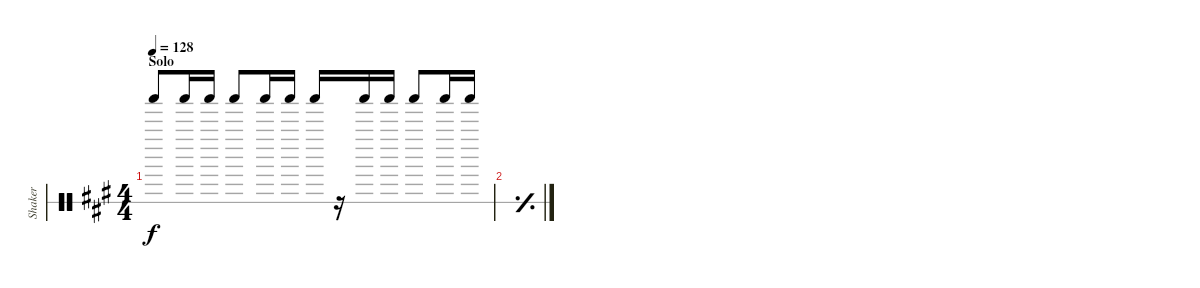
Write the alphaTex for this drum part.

\defaultSystemsLayout 4
\bracketExtendMode groupsimilarinstruments
\otherSystemsTrackNameOrientation horizontal
\track ("Shaker" "Shaker") {multiBarRest instrument percussion}
\staff {score 1}
\articulation defaults
\ts (4 4)
\section ("" "Solo")
\tempo 128
\clef neutral
\ks a "Shaker (hit)"{acc forcenatural}.8{dy f beam Up} "Shaker (hit)"{acc forcenatural}.16{beam Up} "Shaker (hit)"{acc forcenatural}.16{beam Up} "Shaker (hit)"{acc forcenatural}.8{beam Up} "Shaker (hit)"{acc forcenatural}.16{beam Up} "Shaker (hit)"{acc forcenatural}.16{beam Up} "Shaker (hit)"{acc forcenatural}.16{beam Up}
r.16{beam Up} "Shaker (hit)"{acc forcenatural}.16{beam Up} "Shaker (hit)"{acc forcenatural}.16{beam Up} "Shaker (hit)"{acc forcenatural}.8{beam Up} "Shaker (hit)"{acc forcenatural}.16{beam Up} "Shaker (hit)"{acc forcenatural}.16{beam Up} |
\simile simple
